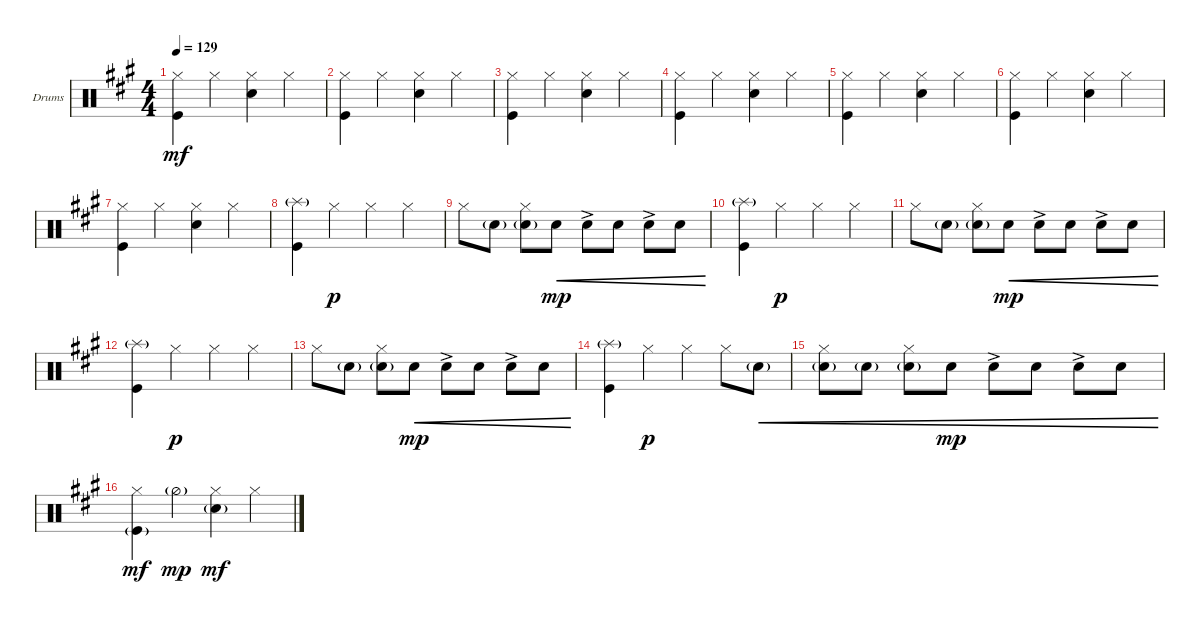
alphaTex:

\defaultSystemsLayout 4
\bracketExtendMode groupsimilarinstruments
\firstSystemTrackNameOrientation horizontal
\otherSystemsTrackNameOrientation horizontal
\track ("Drumkit" "Drums") {instrument percussion}
\staff {score}
\articulation defaults
\ts (4 4)
\tempo 129
\clef neutral
\ks f#minor
("Kick (hit)" "Hi-Hat (closed)").4{dy mf} "Hi-Hat (closed)".4 ("Snare (hit) 2" "Hi-Hat (closed)").4 "Hi-Hat (closed)".4 |
("Kick (hit)" "Hi-Hat (closed)").4 "Hi-Hat (closed)".4 ("Snare (hit) 2" "Hi-Hat (closed)").4 "Hi-Hat (closed)".4 |
("Kick (hit)" "Hi-Hat (closed)").4 "Hi-Hat (closed)".4 ("Snare (hit) 2" "Hi-Hat (closed)").4 "Hi-Hat (closed)".4 |
("Kick (hit)" "Hi-Hat (closed)").4 "Hi-Hat (closed)".4 ("Snare (hit) 2" "Hi-Hat (closed)").4 "Hi-Hat (closed)".4 |
("Kick (hit)" "Hi-Hat (closed)").4 "Hi-Hat (closed)".4 ("Snare (hit) 2" "Hi-Hat (closed)").4 "Hi-Hat (closed)".4 |
("Kick (hit)" "Hi-Hat (closed)").4 "Hi-Hat (closed)".4 ("Snare (hit) 2" "Hi-Hat (closed)").4 "Hi-Hat (closed)".4 |
("Kick (hit)" "Hi-Hat (closed)").4 "Hi-Hat (closed)".4 ("Snare (hit) 2" "Hi-Hat (closed)").4 "Hi-Hat (closed)".4 |
("Kick (hit)" "Splash (hit)"{g}).4 "Hi-Hat (closed)".4{dy p} "Hi-Hat (closed)".4 "Hi-Hat (closed)".4 |
"Hi-Hat (closed)".8 "Snare (hit) 2"{g}.8 ("Snare (hit) 2"{g} "Hi-Hat (closed)").8 "Snare (hit) 2".8{cre dy mp} "Snare (hit) 2"{ac}.8{cre} "Snare (hit) 2".8{cre} "Snare (hit) 2"{ac}.8{cre} "Snare (hit) 2".8{cre} |
("Kick (hit)" "Splash (hit)"{g}).4 "Hi-Hat (closed)".4{dy p} "Hi-Hat (closed)".4 "Hi-Hat (closed)".4 |
"Hi-Hat (closed)".8 "Snare (hit) 2"{g}.8 ("Snare (hit) 2"{g} "Hi-Hat (closed)").8 "Snare (hit) 2".8{cre dy mp} "Snare (hit) 2"{ac}.8{cre} "Snare (hit) 2".8{cre} "Snare (hit) 2"{ac}.8{cre} "Snare (hit) 2".8{cre} |
("Kick (hit)" "Splash (hit)"{g}).4 "Hi-Hat (closed)".4{dy p} "Hi-Hat (closed)".4 "Hi-Hat (closed)".4 |
"Hi-Hat (closed)".8 "Snare (hit) 2"{g}.8 ("Snare (hit) 2"{g} "Hi-Hat (closed)").8 "Snare (hit) 2".8{cre dy mp} "Snare (hit) 2"{ac}.8{cre} "Snare (hit) 2".8{cre} "Snare (hit) 2"{ac}.8{cre} "Snare (hit) 2".8{cre} |
("Kick (hit)" "Splash (hit)"{g}).4 "Hi-Hat (closed)".4{dy p} "Hi-Hat (closed)".4 "Hi-Hat (closed)".8 "Snare (hit) 2"{g}.8{cre} |
("Hi-Hat (closed)" "Snare (hit) 2"{g}).8{cre} "Snare (hit) 2"{g}.8{cre} ("Snare (hit) 2"{g} "Hi-Hat (closed)").8{cre} "Snare (hit) 2".8{cre dy mp} "Snare (hit) 2"{ac}.8{cre} "Snare (hit) 2".8{cre} "Snare (hit) 2"{ac}.8{cre} "Snare (hit) 2".8{cre} |
("Kick (hit)"{g} "Hi-Hat (closed)").4{dy mf} "Hi-Hat (half)"{g}.4{dy mp} ("Snare (hit) 2"{g} "Hi-Hat (closed)").4{dy mf} "Hi-Hat (closed)".4
